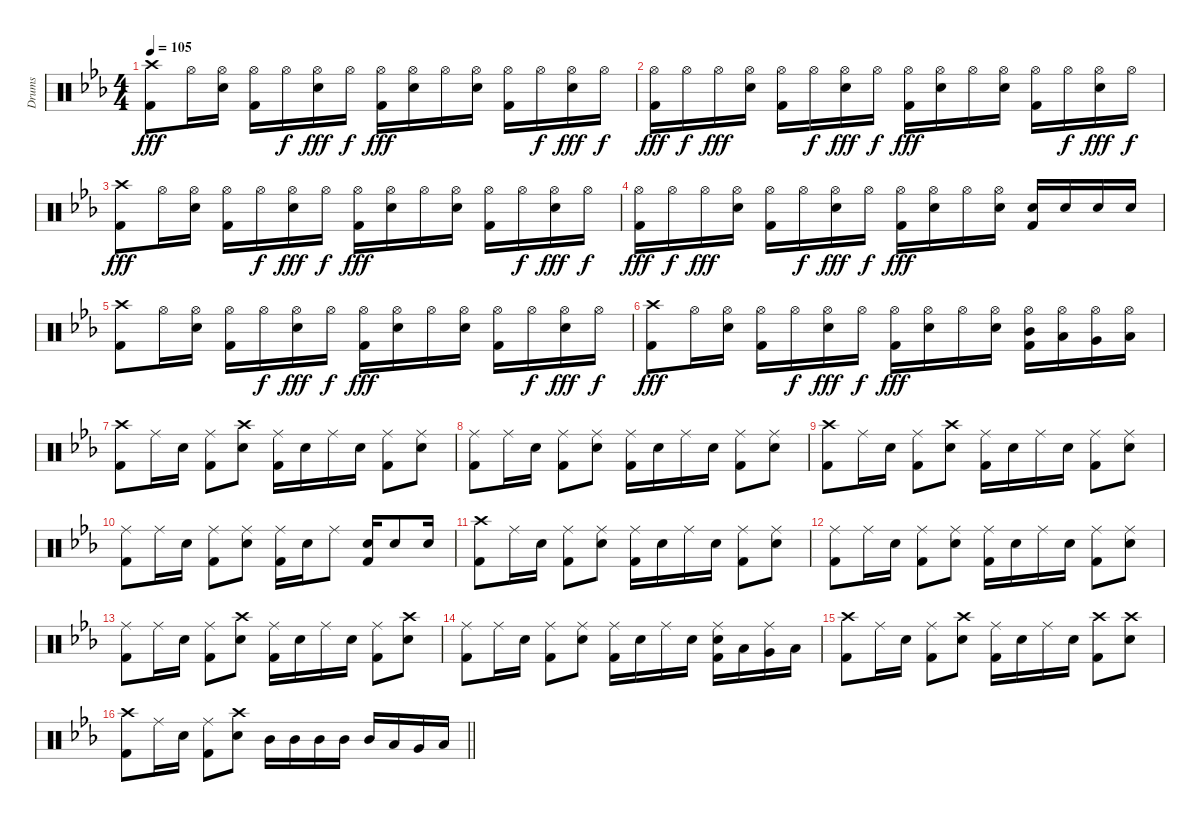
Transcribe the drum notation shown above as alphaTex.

\track ("Drums" "Drums") {instrument percussion}
\staff {score}
\articulation defaults
\ts (4 4)
\tempo 105
\clef neutral
\ks eb
("Crash high (hit)" "Kick (hit) 2").8{dy fff} "Hi-Hat (open)".16 ("Hi-Hat (open)" "Snare (hit) 2").16 ("Hi-Hat (open)" "Kick (hit) 2").16 "Hi-Hat (open)".16{dy f} ("Hi-Hat (open)" "Snare (hit) 2").16{dy fff} "Hi-Hat (open)".16{dy f} ("Hi-Hat (open)" "Kick (hit) 2").16{dy fff} ("Hi-Hat (open)" "Snare (hit) 2").16 "Hi-Hat (open)".16 ("Hi-Hat (open)" "Snare (hit) 2").16 ("Hi-Hat (open)" "Kick (hit) 2").16 "Hi-Hat (open)".16{dy f} ("Hi-Hat (open)" "Snare (hit) 2").16{dy fff} "Hi-Hat (open)".16{dy f} |
("Hi-Hat (open)" "Kick (hit) 2").16{dy fff} "Hi-Hat (open)".16{dy f} "Hi-Hat (open)".16{dy fff} ("Hi-Hat (open)" "Snare (hit) 2").16 ("Hi-Hat (open)" "Kick (hit) 2").16 "Hi-Hat (open)".16{dy f} ("Hi-Hat (open)" "Snare (hit) 2").16{dy fff} "Hi-Hat (open)".16{dy f} ("Hi-Hat (open)" "Kick (hit) 2").16{dy fff} ("Hi-Hat (open)" "Snare (hit) 2").16 "Hi-Hat (open)".16 ("Hi-Hat (open)" "Snare (hit) 2").16 ("Hi-Hat (open)" "Kick (hit) 2").16 "Hi-Hat (open)".16{dy f} ("Hi-Hat (open)" "Snare (hit) 2").16{dy fff} "Hi-Hat (open)".16{dy f} |
("Crash high (hit)" "Kick (hit) 2").8{dy fff} "Hi-Hat (open)".16 ("Hi-Hat (open)" "Snare (hit) 2").16 ("Hi-Hat (open)" "Kick (hit) 2").16 "Hi-Hat (open)".16{dy f} ("Hi-Hat (open)" "Snare (hit) 2").16{dy fff} "Hi-Hat (open)".16{dy f} ("Hi-Hat (open)" "Kick (hit) 2").16{dy fff} ("Hi-Hat (open)" "Snare (hit) 2").16 "Hi-Hat (open)".16 ("Hi-Hat (open)" "Snare (hit) 2").16 ("Hi-Hat (open)" "Kick (hit) 2").16 "Hi-Hat (open)".16{dy f} ("Hi-Hat (open)" "Snare (hit) 2").16{dy fff} "Hi-Hat (open)".16{dy f} |
("Hi-Hat (open)" "Kick (hit) 2").16{dy fff} "Hi-Hat (open)".16{dy f} "Hi-Hat (open)".16{dy fff} ("Hi-Hat (open)" "Snare (hit) 2").16 ("Hi-Hat (open)" "Kick (hit) 2").16 "Hi-Hat (open)".16{dy f} ("Hi-Hat (open)" "Snare (hit) 2").16{dy fff} "Hi-Hat (open)".16{dy f} ("Hi-Hat (open)" "Kick (hit) 2").16{dy fff} ("Hi-Hat (open)" "Snare (hit) 2").16 "Hi-Hat (open)".16 ("Hi-Hat (open)" "Snare (hit) 2").16 ("Snare (hit) 2" "Kick (hit) 2").16 "Snare (hit) 2".16 "Snare (hit) 2".16 "Snare (hit) 2".16 |
("Crash high (hit)" "Kick (hit) 2").8 "Hi-Hat (open)".16 ("Hi-Hat (open)" "Snare (hit) 2").16 ("Hi-Hat (open)" "Kick (hit) 2").16 "Hi-Hat (open)".16{dy f} ("Hi-Hat (open)" "Snare (hit) 2").16{dy fff} "Hi-Hat (open)".16{dy f} ("Hi-Hat (open)" "Kick (hit) 2").16{dy fff} ("Hi-Hat (open)" "Snare (hit) 2").16 "Hi-Hat (open)".16 ("Hi-Hat (open)" "Snare (hit) 2").16 ("Hi-Hat (open)" "Kick (hit) 2").16 "Hi-Hat (open)".16{dy f} ("Hi-Hat (open)" "Snare (hit) 2").16{dy fff} "Hi-Hat (open)".16{dy f} |
("Crash high (hit)" "Kick (hit) 2").8{dy fff} "Hi-Hat (open)".16 ("Hi-Hat (open)" "Snare (hit) 2").16 ("Hi-Hat (open)" "Kick (hit) 2").16 "Hi-Hat (open)".16{dy f} ("Hi-Hat (open)" "Snare (hit) 2").16{dy fff} "Hi-Hat (open)".16{dy f} ("Hi-Hat (open)" "Kick (hit) 2").16{dy fff} ("Hi-Hat (open)" "Snare (hit) 2").16 "Hi-Hat (open)".16 ("Hi-Hat (open)" "Snare (hit) 2").16 ("Hi-Hat (open)" "Mid Tom (hit)" "Kick (hit) 2").16 ("Hi-Hat (open)" "Low Tom (hit)").16 ("Hi-Hat (open)" "Very Low Tom (hit)").16 ("Hi-Hat (open)" "Low Floor Tom (hit)").16 |
("Crash high (hit)" "Kick (hit) 2").8 "Ride (middle)".16 "Snare (hit) 2".16 ("Ride (middle)" "Kick (hit) 2").8 ("Crash high (hit)" "Snare (hit) 2").8 ("Ride (middle)" "Kick (hit) 2").16 "Snare (hit) 2".16 "Ride (middle)".16 "Snare (hit) 2".16 ("Ride (middle)" "Kick (hit) 2").8 ("Ride (middle)" "Snare (hit) 2").8 |
("Ride (middle)" "Kick (hit) 2").8 "Ride (middle)".16 "Snare (hit) 2".16 ("Ride (middle)" "Kick (hit) 2").8 ("Ride (middle)" "Snare (hit) 2").8 ("Ride (middle)" "Kick (hit) 2").16 "Snare (hit) 2".16 "Ride (middle)".16 "Snare (hit) 2".16 ("Ride (middle)" "Kick (hit) 2").8 ("Ride (middle)" "Snare (hit) 2").8 |
("Crash high (hit)" "Kick (hit) 2").8 "Ride (middle)".16 "Snare (hit) 2".16 ("Ride (middle)" "Kick (hit) 2").8 ("Crash high (hit)" "Snare (hit) 2").8 ("Ride (middle)" "Kick (hit) 2").16 "Snare (hit) 2".16 "Ride (middle)".16 "Snare (hit) 2".16 ("Ride (middle)" "Kick (hit) 2").8 ("Ride (middle)" "Snare (hit) 2").8 |
("Ride (middle)" "Kick (hit) 2").8 "Ride (middle)".16 "Snare (hit) 2".16 ("Ride (middle)" "Kick (hit) 2").8 ("Ride (middle)" "Snare (hit) 2").8 ("Ride (middle)" "Kick (hit) 2").16 "Snare (hit) 2".16 "Ride (middle)".8 ("Snare (hit) 2" "Kick (hit) 2").16 "Snare (hit) 2".8 "Snare (hit) 2".16 |
("Crash high (hit)" "Kick (hit) 2").8 "Ride (middle)".16 "Snare (hit) 2".16 ("Ride (middle)" "Kick (hit) 2").8 ("Ride (middle)" "Snare (hit) 2").8 ("Ride (middle)" "Kick (hit) 2").16 "Snare (hit) 2".16 "Ride (middle)".16 "Snare (hit) 2".16 ("Ride (middle)" "Kick (hit) 2").8 ("Ride (middle)" "Snare (hit) 2").8 |
("Ride (middle)" "Kick (hit) 2").8 "Ride (middle)".16 "Snare (hit) 2".16 ("Ride (middle)" "Kick (hit) 2").8 ("Ride (middle)" "Snare (hit) 2").8 ("Ride (middle)" "Kick (hit) 2").16 "Snare (hit) 2".16 "Ride (middle)".16 "Snare (hit) 2".16 ("Ride (middle)" "Kick (hit) 2").8 ("Ride (middle)" "Snare (hit) 2").8 |
("Ride (middle)" "Kick (hit) 2").8 "Ride (middle)".16 "Snare (hit) 2".16 ("Ride (middle)" "Kick (hit) 2").8 ("Crash high (hit)" "Snare (hit) 2").8 ("Ride (middle)" "Kick (hit) 2").16 "Snare (hit) 2".16 "Ride (middle)".16 "Snare (hit) 2".16 ("Ride (middle)" "Kick (hit) 2").8 ("Crash high (hit)" "Snare (hit) 2").8 |
("Ride (middle)" "Kick (hit) 2").8 "Ride (middle)".16 "Snare (hit) 2".16 ("Ride (middle)" "Kick (hit) 2").8 ("Ride (middle)" "Snare (hit) 2").8 ("Ride (middle)" "Kick (hit) 2").16 "Snare (hit) 2".16 "Ride (middle)".16 "Snare (hit) 2".16 ("Ride (middle)" "Snare (hit) 2" "Kick (hit) 2").16 "Low Tom (hit)".16 ("Ride (middle)" "Very Low Tom (hit)").16 "Low Floor Tom (hit)".16 |
("Crash high (hit)" "Kick (hit) 2").8 "Ride (middle)".16 "Snare (hit) 2".16 ("Ride (middle)" "Kick (hit) 2").8 ("Crash high (hit)" "Snare (hit) 2").8 ("Ride (middle)" "Kick (hit) 2").16 "Snare (hit) 2".16 "Ride (middle)".16 "Snare (hit) 2".16 ("Crash high (hit)" "Kick (hit) 2").8 ("Crash high (hit)" "Snare (hit) 2").8 |
\barLineRight lightlight
("Crash high (hit)" "Kick (hit) 2").8 "Ride (middle)".16 "Snare (hit) 2".16 ("Ride (middle)" "Kick (hit) 2").8 ("Crash high (hit)" "Snare (hit) 2").8 "Mid Tom (hit)".16 "Mid Tom (hit)".16 "Mid Tom (hit)".16 "Mid Tom (hit)".16 "Mid Tom (hit)".16 "Low Tom (hit)".16 "Very Low Tom (hit)".16 "Low Floor Tom (hit)".16
